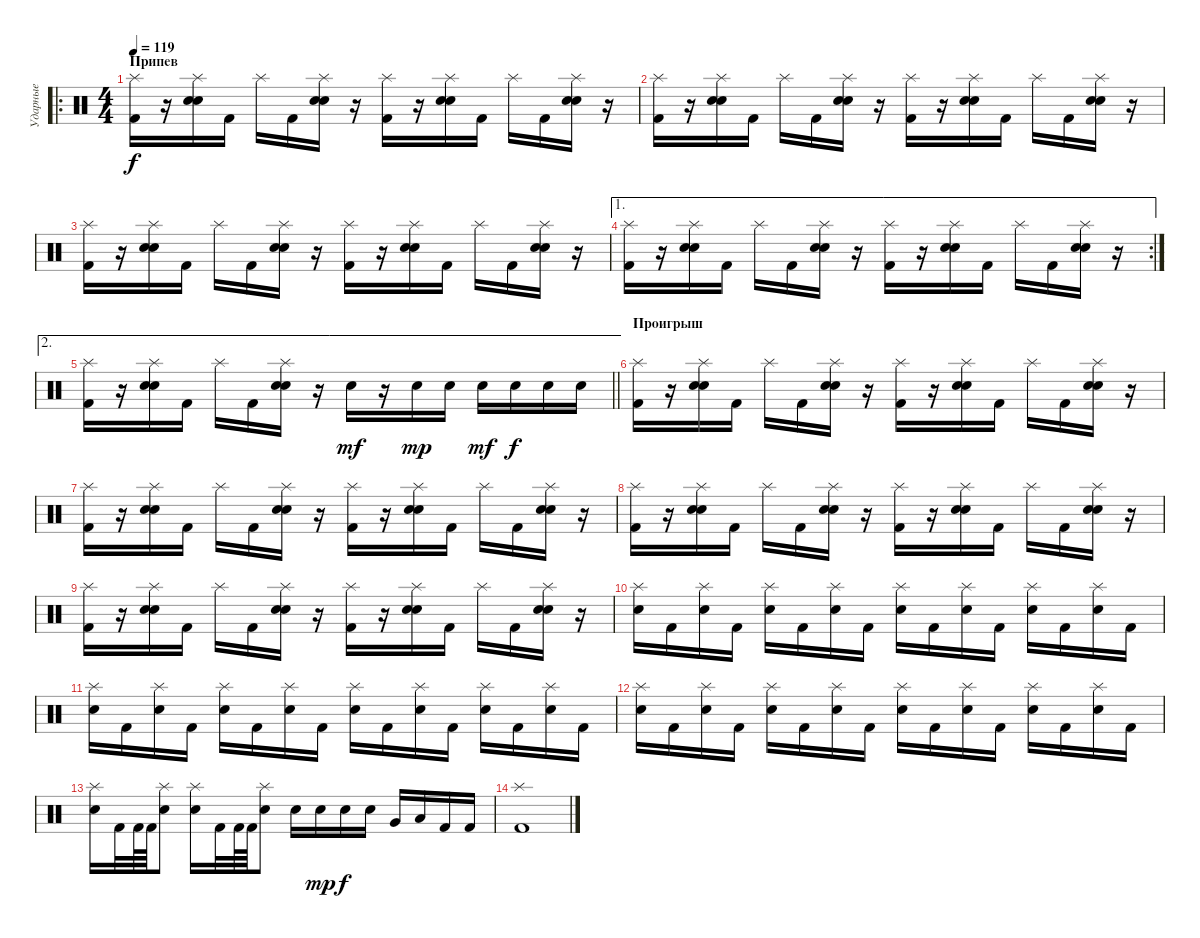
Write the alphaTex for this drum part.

\track ("Ударные" "Ударные") {instrument percussion}
\staff {score}
\articulation defaults
\ro
\ts (4 4)
\section ("" "Припев")
\tempo 119
\clef neutral
\ks c
("Splash (hit)" "Kick (hit) 2").16{dy f} r.16 ("Splash (hit)" "Electric Snare (hit)" "Snare (hit) 2").16 "Kick (hit) 2".16 "Splash (hit)".16 "Kick (hit) 2".16 ("Splash (hit)" "Electric Snare (hit)" "Snare (hit) 2").16 r.16 ("Splash (hit)" "Kick (hit) 2").16 r.16 ("Splash (hit)" "Electric Snare (hit)" "Snare (hit) 2").16 "Kick (hit) 2".16 "Splash (hit)".16 "Kick (hit) 2".16 ("Splash (hit)" "Electric Snare (hit)" "Snare (hit) 2").16 r.16 |
("Splash (hit)" "Kick (hit) 2").16 r.16 ("Splash (hit)" "Electric Snare (hit)" "Snare (hit) 2").16 "Kick (hit) 2".16 "Splash (hit)".16 "Kick (hit) 2".16 ("Splash (hit)" "Electric Snare (hit)" "Snare (hit) 2").16 r.16 ("Splash (hit)" "Kick (hit) 2").16 r.16 ("Splash (hit)" "Electric Snare (hit)" "Snare (hit) 2").16 "Kick (hit) 2".16 "Splash (hit)".16 "Kick (hit) 2".16 ("Splash (hit)" "Electric Snare (hit)" "Snare (hit) 2").16 r.16 |
("Splash (hit)" "Kick (hit) 2").16 r.16 ("Splash (hit)" "Electric Snare (hit)" "Snare (hit) 2").16 "Kick (hit) 2".16 "Splash (hit)".16 "Kick (hit) 2".16 ("Splash (hit)" "Electric Snare (hit)" "Snare (hit) 2").16 r.16 ("Splash (hit)" "Kick (hit) 2").16 r.16 ("Splash (hit)" "Electric Snare (hit)" "Snare (hit) 2").16 "Kick (hit) 2".16 "Splash (hit)".16 "Kick (hit) 2".16 ("Splash (hit)" "Electric Snare (hit)" "Snare (hit) 2").16 r.16 |
\ae 1
\rc 2
("Splash (hit)" "Kick (hit) 2").16 r.16 ("Splash (hit)" "Electric Snare (hit)" "Snare (hit) 2").16 "Kick (hit) 2".16 "Splash (hit)".16 "Kick (hit) 2".16 ("Splash (hit)" "Electric Snare (hit)" "Snare (hit) 2").16 r.16 ("Splash (hit)" "Kick (hit) 2").16 r.16 ("Splash (hit)" "Electric Snare (hit)" "Snare (hit) 2").16 "Kick (hit) 2".16 "Splash (hit)".16 "Kick (hit) 2".16 ("Splash (hit)" "Electric Snare (hit)" "Snare (hit) 2").16 r.16 |
\ae 2
\barLineRight lightlight
("Splash (hit)" "Kick (hit) 2").16 r.16 ("Splash (hit)" "Electric Snare (hit)" "Snare (hit) 2").16 "Kick (hit) 2".16 "Splash (hit)".16 "Kick (hit) 2".16 ("Splash (hit)" "Electric Snare (hit)" "Snare (hit) 2").16 r.16 "Electric Snare (hit)".16{dy mf} r.16 "Electric Snare (hit)".16{dy mp} "Electric Snare (hit)".16 "Electric Snare (hit)".16{dy mf} "Electric Snare (hit)".16{dy f} "Electric Snare (hit)".16 "Electric Snare (hit)".16 |
\section ("" "Проигрыш")
("Splash (hit)" "Kick (hit) 2").16 r.16 ("Splash (hit)" "Electric Snare (hit)" "Snare (hit) 2").16 "Kick (hit) 2".16 "Splash (hit)".16 "Kick (hit) 2".16 ("Splash (hit)" "Electric Snare (hit)" "Snare (hit) 2").16 r.16 ("Splash (hit)" "Kick (hit) 2").16 r.16 ("Splash (hit)" "Electric Snare (hit)" "Snare (hit) 2").16 "Kick (hit) 2".16 "Splash (hit)".16 "Kick (hit) 2".16 ("Splash (hit)" "Electric Snare (hit)" "Snare (hit) 2").16 r.16 |
("Splash (hit)" "Kick (hit) 2").16 r.16 ("Splash (hit)" "Electric Snare (hit)" "Snare (hit) 2").16 "Kick (hit) 2".16 "Splash (hit)".16 "Kick (hit) 2".16 ("Splash (hit)" "Electric Snare (hit)" "Snare (hit) 2").16 r.16 ("Splash (hit)" "Kick (hit) 2").16 r.16 ("Splash (hit)" "Electric Snare (hit)" "Snare (hit) 2").16 "Kick (hit) 2".16 "Splash (hit)".16 "Kick (hit) 2".16 ("Splash (hit)" "Electric Snare (hit)" "Snare (hit) 2").16 r.16 |
("Splash (hit)" "Kick (hit) 2").16 r.16 ("Splash (hit)" "Electric Snare (hit)" "Snare (hit) 2").16 "Kick (hit) 2".16 "Splash (hit)".16 "Kick (hit) 2".16 ("Splash (hit)" "Electric Snare (hit)" "Snare (hit) 2").16 r.16 ("Splash (hit)" "Kick (hit) 2").16 r.16 ("Splash (hit)" "Electric Snare (hit)" "Snare (hit) 2").16 "Kick (hit) 2".16 "Splash (hit)".16 "Kick (hit) 2".16 ("Splash (hit)" "Electric Snare (hit)" "Snare (hit) 2").16 r.16 |
("Splash (hit)" "Kick (hit) 2").16 r.16 ("Splash (hit)" "Electric Snare (hit)" "Snare (hit) 2").16 "Kick (hit) 2".16 "Splash (hit)".16 "Kick (hit) 2".16 ("Splash (hit)" "Electric Snare (hit)" "Snare (hit) 2").16 r.16 ("Splash (hit)" "Kick (hit) 2").16 r.16 ("Splash (hit)" "Electric Snare (hit)" "Snare (hit) 2").16 "Kick (hit) 2".16 "Splash (hit)".16 "Kick (hit) 2".16 ("Splash (hit)" "Electric Snare (hit)" "Snare (hit) 2").16 r.16 |
("Splash (hit)" "Electric Snare (hit)").16 "Kick (hit) 2".16 ("Splash (hit)" "Electric Snare (hit)").16 "Kick (hit) 2".16 ("Splash (hit)" "Electric Snare (hit)").16 "Kick (hit) 2".16 ("Splash (hit)" "Electric Snare (hit)").16 "Kick (hit) 2".16 ("Splash (hit)" "Electric Snare (hit)").16 "Kick (hit) 2".16 ("Splash (hit)" "Electric Snare (hit)").16 "Kick (hit) 2".16 ("Splash (hit)" "Electric Snare (hit)").16 "Kick (hit) 2".16 ("Splash (hit)" "Electric Snare (hit)").16 "Kick (hit) 2".16 |
("Splash (hit)" "Electric Snare (hit)").16 "Kick (hit) 2".16 ("Splash (hit)" "Electric Snare (hit)").16 "Kick (hit) 2".16 ("Splash (hit)" "Electric Snare (hit)").16 "Kick (hit) 2".16 ("Splash (hit)" "Electric Snare (hit)").16 "Kick (hit) 2".16 ("Splash (hit)" "Electric Snare (hit)").16 "Kick (hit) 2".16 ("Splash (hit)" "Electric Snare (hit)").16 "Kick (hit) 2".16 ("Splash (hit)" "Electric Snare (hit)").16 "Kick (hit) 2".16 ("Splash (hit)" "Electric Snare (hit)").16 "Kick (hit) 2".16 |
("Splash (hit)" "Electric Snare (hit)").16 "Kick (hit) 2".16 ("Splash (hit)" "Electric Snare (hit)").16 "Kick (hit) 2".16 ("Splash (hit)" "Electric Snare (hit)").16 "Kick (hit) 2".16 ("Splash (hit)" "Electric Snare (hit)").16 "Kick (hit) 2".16 ("Splash (hit)" "Electric Snare (hit)").16 "Kick (hit) 2".16 ("Splash (hit)" "Electric Snare (hit)").16 "Kick (hit) 2".16 ("Splash (hit)" "Electric Snare (hit)").16 "Kick (hit) 2".16 ("Splash (hit)" "Electric Snare (hit)").16 "Kick (hit) 2".16 |
("Splash (hit)" "Electric Snare (hit)").16 "Kick (hit) 2".32 "Kick (hit) 2".64 "Kick (hit) 2".64 ("Splash (hit)" "Electric Snare (hit)").8 ("Splash (hit)" "Electric Snare (hit)").16 "Kick (hit) 2".32 "Kick (hit) 2".64 "Kick (hit) 2".64 ("Splash (hit)" "Electric Snare (hit)").8 "Electric Snare (hit)".16 "Electric Snare (hit)".16{dy mp} "Electric Snare (hit)".16{dy f} "Electric Snare (hit)".16 "Very Low Tom (hit)".16 "Low Tom (hit)".16 "Kick (hit) 2".16 "Kick (hit) 2".16 |
("Splash (hit)" "Kick (hit) 2").1
